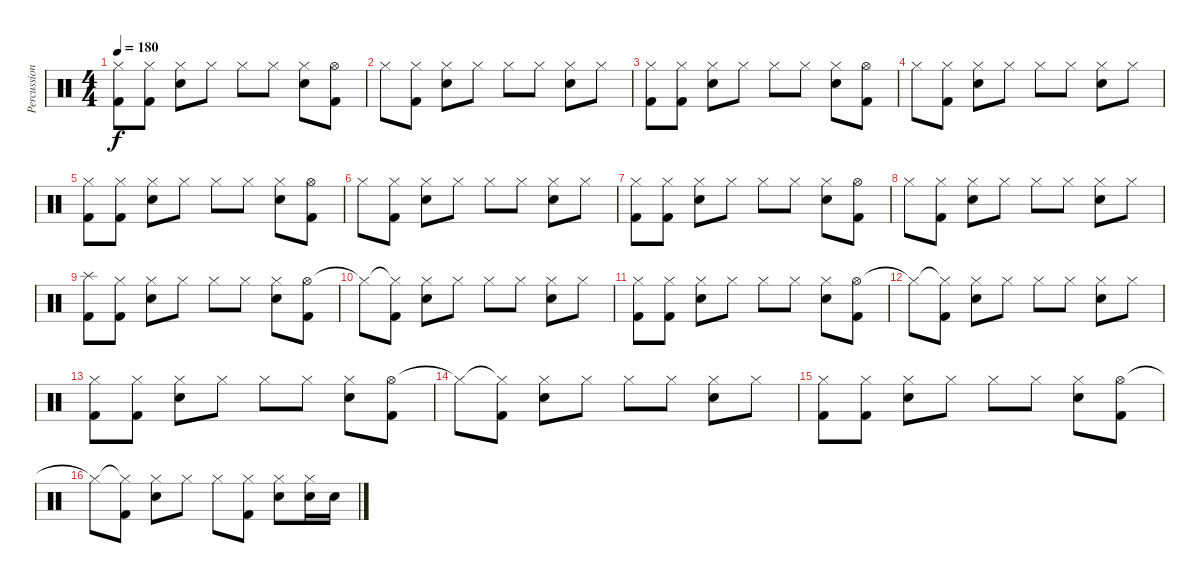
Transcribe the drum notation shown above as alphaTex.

\track ("Percussion" "Percussion") {instrument percussion}
\staff {score}
\articulation defaults
\ts (4 4)
\tempo 180
\clef neutral
\ks c
("Hi-Hat (closed)" "Kick (hit) 2").8{dy f} ("Hi-Hat (closed)" "Kick (hit) 2").8 ("Hi-Hat (closed)" "Snare (hit) 2").8 "Hi-Hat (closed)".8 "Hi-Hat (closed)".8 "Hi-Hat (closed)".8 ("Hi-Hat (closed)" "Snare (hit) 2").8 ("Hi-Hat (open)" "Kick (hit) 2").8 |
"Hi-Hat (closed)".8 ("Hi-Hat (closed)" "Kick (hit) 2").8 ("Hi-Hat (closed)" "Snare (hit) 2").8 "Hi-Hat (closed)".8 "Hi-Hat (closed)".8 "Hi-Hat (closed)".8 ("Hi-Hat (closed)" "Snare (hit) 2").8 "Hi-Hat (closed)".8 |
("Hi-Hat (closed)" "Kick (hit) 2").8 ("Hi-Hat (closed)" "Kick (hit) 2").8 ("Hi-Hat (closed)" "Snare (hit) 2").8 "Hi-Hat (closed)".8 "Hi-Hat (closed)".8 "Hi-Hat (closed)".8 ("Hi-Hat (closed)" "Snare (hit) 2").8 ("Hi-Hat (open)" "Kick (hit) 2").8 |
"Hi-Hat (closed)".8 ("Hi-Hat (closed)" "Kick (hit) 2").8 ("Hi-Hat (closed)" "Snare (hit) 2").8 "Hi-Hat (closed)".8 "Hi-Hat (closed)".8 "Hi-Hat (closed)".8 ("Hi-Hat (closed)" "Snare (hit) 2").8 "Hi-Hat (closed)".8 |
("Hi-Hat (closed)" "Kick (hit) 2").8 ("Hi-Hat (closed)" "Kick (hit) 2").8 ("Hi-Hat (closed)" "Snare (hit) 2").8 "Hi-Hat (closed)".8 "Hi-Hat (closed)".8 "Hi-Hat (closed)".8 ("Hi-Hat (closed)" "Snare (hit) 2").8 ("Hi-Hat (open)" "Kick (hit) 2").8 |
"Hi-Hat (closed)".8 ("Hi-Hat (closed)" "Kick (hit) 2").8 ("Hi-Hat (closed)" "Snare (hit) 2").8 "Hi-Hat (closed)".8 "Hi-Hat (closed)".8 "Hi-Hat (closed)".8 ("Hi-Hat (closed)" "Snare (hit) 2").8 "Hi-Hat (closed)".8 |
("Hi-Hat (closed)" "Kick (hit) 2").8 ("Hi-Hat (closed)" "Kick (hit) 2").8 ("Hi-Hat (closed)" "Snare (hit) 2").8 "Hi-Hat (closed)".8 "Hi-Hat (closed)".8 "Hi-Hat (closed)".8 ("Hi-Hat (closed)" "Snare (hit) 2").8 ("Hi-Hat (open)" "Kick (hit) 2").8 |
"Hi-Hat (closed)".8 ("Hi-Hat (closed)" "Kick (hit) 2").8 ("Hi-Hat (closed)" "Snare (hit) 2").8 "Hi-Hat (closed)".8 "Hi-Hat (closed)".8 "Hi-Hat (closed)".8 ("Hi-Hat (closed)" "Snare (hit) 2").8 "Hi-Hat (closed)".8 |
("Splash (hit)" "Kick (hit) 2").8 ("Hi-Hat (closed)" "Kick (hit) 2").8 ("Hi-Hat (closed)" "Snare (hit) 2").8 "Hi-Hat (closed)".8 "Hi-Hat (closed)".8 "Hi-Hat (closed)".8 ("Hi-Hat (closed)" "Snare (hit) 2").8 ("Hi-Hat (open)" "Kick (hit) 2").8 |
"Hi-Hat (closed)"{t}.8 ("Hi-Hat (closed)"{t} "Kick (hit) 2").8 ("Hi-Hat (closed)" "Snare (hit) 2").8 "Hi-Hat (closed)".8 "Hi-Hat (closed)".8 "Hi-Hat (closed)".8 ("Hi-Hat (closed)" "Snare (hit) 2").8 "Hi-Hat (closed)".8 |
("Hi-Hat (closed)" "Kick (hit) 2").8 ("Hi-Hat (closed)" "Kick (hit) 2").8 ("Hi-Hat (closed)" "Snare (hit) 2").8 "Hi-Hat (closed)".8 "Hi-Hat (closed)".8 "Hi-Hat (closed)".8 ("Hi-Hat (closed)" "Snare (hit) 2").8 ("Hi-Hat (open)" "Kick (hit) 2").8 |
"Hi-Hat (closed)"{t}.8 ("Hi-Hat (closed)"{t} "Kick (hit) 2").8 ("Hi-Hat (closed)" "Snare (hit) 2").8 "Hi-Hat (closed)".8 "Hi-Hat (closed)".8 "Hi-Hat (closed)".8 ("Hi-Hat (closed)" "Snare (hit) 2").8 "Hi-Hat (closed)".8 |
("Hi-Hat (closed)" "Kick (hit) 2").8 ("Hi-Hat (closed)" "Kick (hit) 2").8 ("Hi-Hat (closed)" "Snare (hit) 2").8 "Hi-Hat (closed)".8 "Hi-Hat (closed)".8 "Hi-Hat (closed)".8 ("Hi-Hat (closed)" "Snare (hit) 2").8 ("Hi-Hat (open)" "Kick (hit) 2").8 |
"Hi-Hat (closed)"{t}.8 ("Hi-Hat (closed)"{t} "Kick (hit) 2").8 ("Hi-Hat (closed)" "Snare (hit) 2").8 "Hi-Hat (closed)".8 "Hi-Hat (closed)".8 "Hi-Hat (closed)".8 ("Hi-Hat (closed)" "Snare (hit) 2").8 "Hi-Hat (closed)".8 |
("Hi-Hat (closed)" "Kick (hit) 2").8 ("Hi-Hat (closed)" "Kick (hit) 2").8 ("Hi-Hat (closed)" "Snare (hit) 2").8 "Hi-Hat (closed)".8 "Hi-Hat (closed)".8 "Hi-Hat (closed)".8 ("Hi-Hat (closed)" "Snare (hit) 2").8 ("Hi-Hat (open)" "Kick (hit) 2").8 |
"Hi-Hat (closed)"{t}.8 ("Hi-Hat (closed)"{t} "Kick (hit) 2").8 ("Hi-Hat (closed)" "Snare (hit) 2").8 "Hi-Hat (closed)".8 "Hi-Hat (closed)".8 ("Hi-Hat (closed)" "Kick (hit) 2").8 ("Hi-Hat (closed)" "Snare (hit) 2").8 ("Hi-Hat (closed)" "Snare (hit) 2").16 "Snare (hit) 2".16
